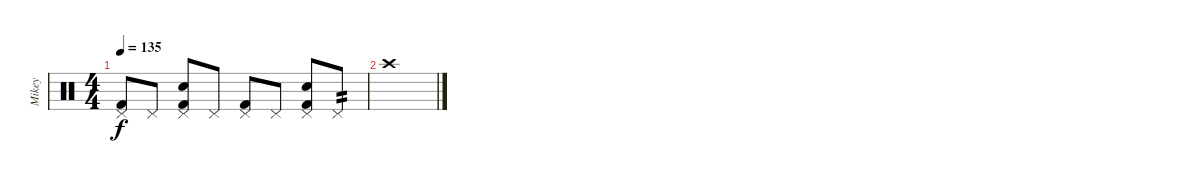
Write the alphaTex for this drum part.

\track ("Mikey" "Mikey") {instrument percussion}
\staff {score}
\articulation defaults
\ts (4 4)
\tempo 135
\clef neutral
\ks c
("Pedal Hi-Hat (hit)" "Kick (hit) 2").8{dy f} "Pedal Hi-Hat (hit)".8 ("Pedal Hi-Hat (hit)" "Snare (hit) 2" "Kick (hit) 2").8 "Pedal Hi-Hat (hit)".8 ("Pedal Hi-Hat (hit)" "Kick (hit) 2").8 "Pedal Hi-Hat (hit)".8 ("Pedal Hi-Hat (hit)" "Snare (hit) 2" "Kick (hit) 2").8 "Pedal Hi-Hat (hit)".8{tp 2} |
"Crash high (hit)".1
